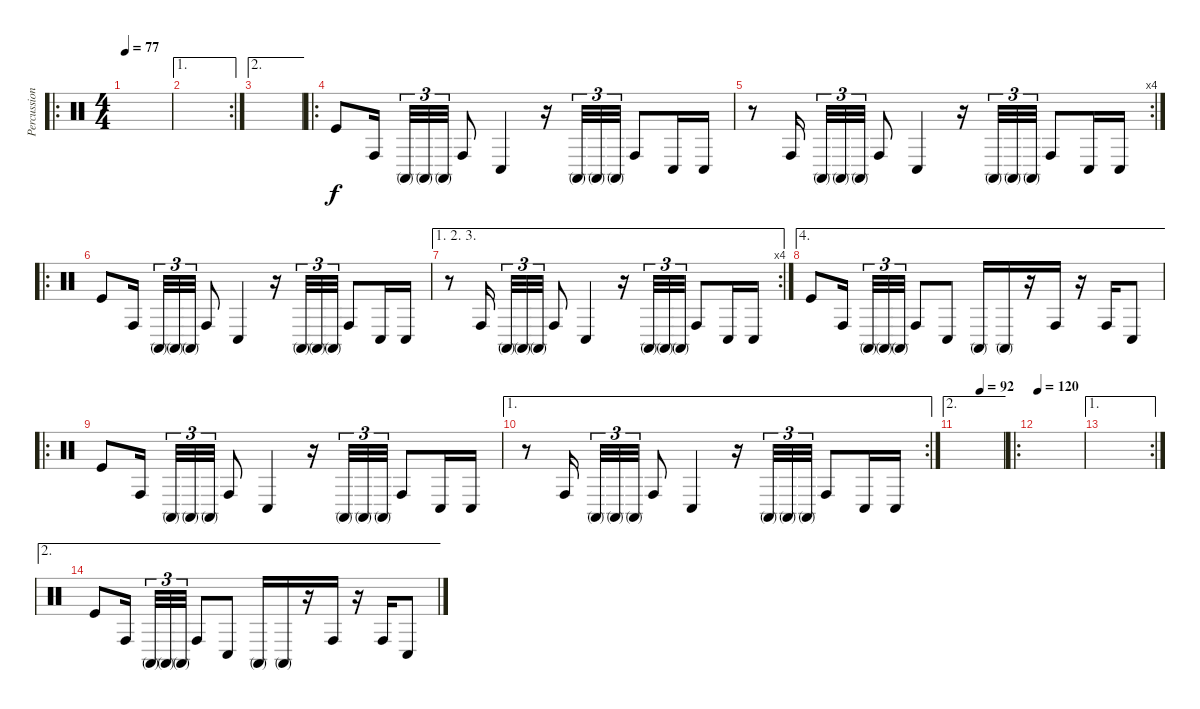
\track ("Percussions" "Percussion") {instrument percussion}
\staff {score}
\articulation defaults
\ro
\ts (4 4)
\tempo 77
\clef neutral
\ks c
|
\ae 1
\rc 2
|
\ae 2
|
\ro "Kick (hit)".8 "Conga high (hit)".16 "Conga high (mute)".32{tu (3 2)} "Conga high (mute)".32{tu (3 2)} "Conga high (mute)".32{tu (3 2)} "Conga high (hit)".8 "Conga low (hit)".4
r.16 "Conga high (mute)".32{tu (3 2)} "Conga high (mute)".32{tu (3 2)} "Conga high (mute)".32{tu (3 2)} "Conga high (hit)".8 "Conga low (hit)".16 "Conga low (hit)".16 |
\rc 4
r.8 "Conga high (hit)".16 "Conga high (mute)".32{tu (3 2)} "Conga high (mute)".32{tu (3 2)} "Conga high (mute)".32{tu (3 2)} "Conga high (hit)".8 "Conga low (hit)".4 r.16 "Conga high (mute)".32{tu (3 2)} "Conga high (mute)".32{tu (3 2)} "Conga high (mute)".32{tu (3 2)} "Conga high (hit)".8 "Conga low (hit)".16 "Conga low (hit)".16 |
\ro "Kick (hit)".8 "Conga high (hit)".16 "Conga high (mute)".32{tu (3 2)} "Conga high (mute)".32{tu (3 2)} "Conga high (mute)".32{tu (3 2)} "Conga high (hit)".8 "Conga low (hit)".4
r.16 "Conga high (mute)".32{tu (3 2)} "Conga high (mute)".32{tu (3 2)} "Conga high (mute)".32{tu (3 2)} "Conga high (hit)".8 "Conga low (hit)".16 "Conga low (hit)".16 |
\ae (1 2 3)
\rc 4
r.8 "Conga high (hit)".16 "Conga high (mute)".32{tu (3 2)} "Conga high (mute)".32{tu (3 2)} "Conga high (mute)".32{tu (3 2)} "Conga high (hit)".8 "Conga low (hit)".4 r.16 "Conga high (mute)".32{tu (3 2)} "Conga high (mute)".32{tu (3 2)} "Conga high (mute)".32{tu (3 2)} "Conga high (hit)".8 "Conga low (hit)".16 "Conga low (hit)".16 |
\ae 4 "Kick (hit)".8 "Conga high (hit)".16 "Conga high (mute)".32{tu (3 2)} "Conga high (mute)".32{tu (3 2)} "Conga high (mute)".32{tu (3 2)} "Conga high (hit)".8 "Conga low (hit)".8 "Conga high (mute)".16 "Conga high (mute)".16
r.16 "Conga high (hit)".16 r.16 "Conga high (hit)".16 "Conga low (hit)".8 |
\ro "Kick (hit)".8 "Conga high (hit)".16 "Conga high (mute)".32{tu (3 2)} "Conga high (mute)".32{tu (3 2)} "Conga high (mute)".32{tu (3 2)} "Conga high (hit)".8 "Conga low (hit)".4
r.16 "Conga high (mute)".32{tu (3 2)} "Conga high (mute)".32{tu (3 2)} "Conga high (mute)".32{tu (3 2)} "Conga high (hit)".8 "Conga low (hit)".16 "Conga low (hit)".16 |
\ae 1
\rc 2
r.8 "Conga high (hit)".16 "Conga high (mute)".32{tu (3 2)} "Conga high (mute)".32{tu (3 2)} "Conga high (mute)".32{tu (3 2)} "Conga high (hit)".8 "Conga low (hit)".4 r.16 "Conga high (mute)".32{tu (3 2)} "Conga high (mute)".32{tu (3 2)} "Conga high (mute)".32{tu (3 2)} "Conga high (hit)".8 "Conga low (hit)".16 "Conga low (hit)".16 |
\ae 2
\tempo (102 0.5)
\tempo (92 0.5)
|
\ro
\tempo 120
|
\ae 1
\rc 2
|
\ae 2 "Kick (hit)".8 "Conga high (hit)".16 "Conga high (mute)".32{tu (3 2)} "Conga high (mute)".32{tu (3 2)} "Conga high (mute)".32{tu (3 2)} "Conga high (hit)".8 "Conga low (hit)".8 "Conga high (mute)".16 "Conga high (mute)".16
r.16 "Conga high (hit)".16 r.16 "Conga high (hit)".16 "Conga low (hit)".8
